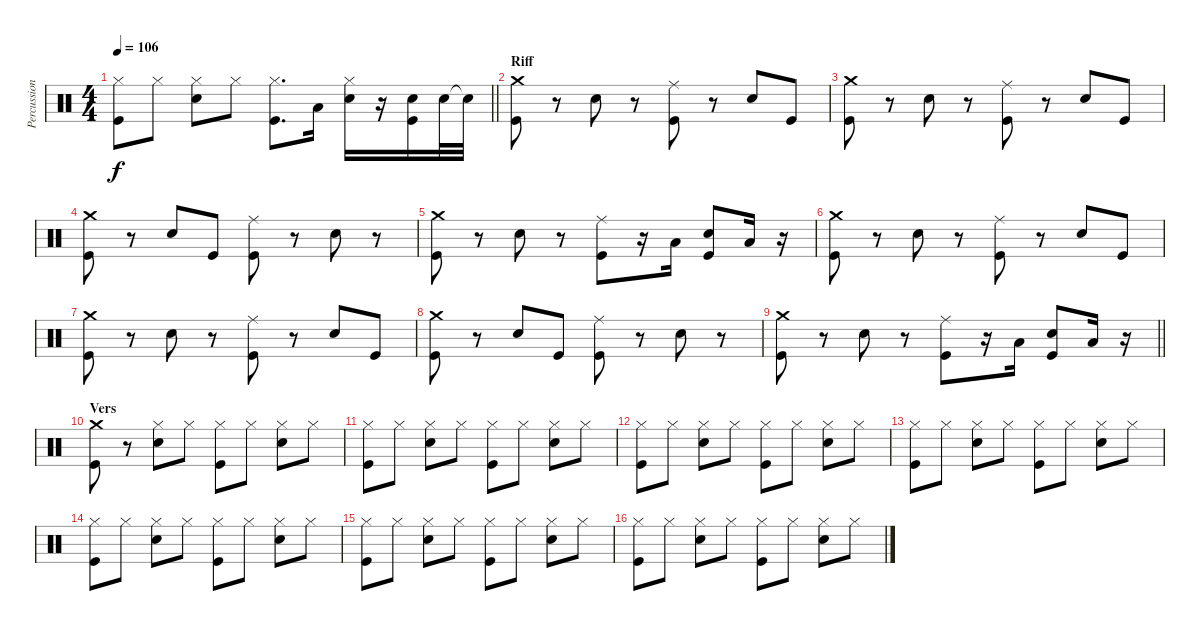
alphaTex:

\track ("Percussion" "Percussion") {instrument percussion}
\staff {score}
\articulation defaults
\ts (4 4)
\tempo 106
\clef neutral
\barLineRight lightlight
\ks c
("Kick (hit)" "Hi-Hat (closed)").8{dy f} "Hi-Hat (closed)".8 ("Electric Snare (hit)" "Hi-Hat (closed)").8 "Hi-Hat (closed)".8 ("Kick (hit)" "Hi-Hat (closed)").8{d} "Low Tom (hit)".16 ("Electric Snare (hit)" "Hi-Hat (closed)").16 r.16 ("Kick (hit)" "Electric Snare (hit)").16 "Electric Snare (hit)".32 "Snare (hit)"{t}.32 |
\section ("" "Riff")
("Kick (hit)" "Crash medium (hit)").8 r.8 "Electric Snare (hit)".8 r.8 ("Kick (hit)" "Ride (middle)").8 r.8 "Electric Snare (hit)".8 "Kick (hit)".8 |
("Kick (hit)" "Crash medium (hit)").8 r.8 "Electric Snare (hit)".8 r.8 ("Kick (hit)" "Ride (middle)").8 r.8 "Electric Snare (hit)".8 "Kick (hit)".8 |
("Kick (hit)" "Crash medium (hit)").8 r.8 "Electric Snare (hit)".8 "Kick (hit)".8 ("Kick (hit)" "Ride (middle)").8 r.8 "Electric Snare (hit)".8 r.8 |
("Kick (hit)" "Crash medium (hit)").8 r.8 "Electric Snare (hit)".8 r.8 ("Kick (hit)" "Ride (middle)").8 r.16 "Low Tom (hit)".16 ("Kick (hit)" "Electric Snare (hit)").8 "Low Tom (hit)".16 r.16 |
("Kick (hit)" "Crash medium (hit)").8 r.8 "Electric Snare (hit)".8 r.8 ("Kick (hit)" "Ride (middle)").8 r.8 "Electric Snare (hit)".8 "Kick (hit)".8 |
("Kick (hit)" "Crash medium (hit)").8 r.8 "Electric Snare (hit)".8 r.8 ("Kick (hit)" "Ride (middle)").8 r.8 "Electric Snare (hit)".8 "Kick (hit)".8 |
("Kick (hit)" "Crash medium (hit)").8 r.8 "Electric Snare (hit)".8 "Kick (hit)".8 ("Kick (hit)" "Ride (middle)").8 r.8 "Electric Snare (hit)".8 r.8 |
\barLineRight lightlight
("Kick (hit)" "Crash medium (hit)").8 r.8 "Electric Snare (hit)".8 r.8 ("Kick (hit)" "Ride (middle)").8 r.16 "Low Tom (hit)".16 ("Kick (hit)" "Electric Snare (hit)").8 "Low Tom (hit)".16 r.16 |
\section ("" "Vers")
("Kick (hit)" "Crash medium (hit)").8 r.8 ("Electric Snare (hit)" "Hi-Hat (closed)").8 "Hi-Hat (closed)".8 ("Kick (hit)" "Hi-Hat (closed)").8 "Hi-Hat (closed)".8 ("Electric Snare (hit)" "Hi-Hat (closed)").8 "Hi-Hat (closed)".8 |
("Kick (hit)" "Hi-Hat (closed)").8 "Hi-Hat (closed)".8 ("Electric Snare (hit)" "Hi-Hat (closed)").8 "Hi-Hat (closed)".8 ("Kick (hit)" "Hi-Hat (closed)").8 "Hi-Hat (closed)".8 ("Electric Snare (hit)" "Hi-Hat (closed)").8 "Hi-Hat (closed)".8 |
("Kick (hit)" "Hi-Hat (closed)").8 "Hi-Hat (closed)".8 ("Electric Snare (hit)" "Hi-Hat (closed)").8 "Hi-Hat (closed)".8 ("Kick (hit)" "Hi-Hat (closed)").8 "Hi-Hat (closed)".8 ("Electric Snare (hit)" "Hi-Hat (closed)").8 "Hi-Hat (closed)".8 |
("Kick (hit)" "Hi-Hat (closed)").8 "Hi-Hat (closed)".8 ("Electric Snare (hit)" "Hi-Hat (closed)").8 "Hi-Hat (closed)".8 ("Kick (hit)" "Hi-Hat (closed)").8 "Hi-Hat (closed)".8 ("Electric Snare (hit)" "Hi-Hat (closed)").8 "Hi-Hat (closed)".8 |
("Kick (hit)" "Hi-Hat (closed)").8 "Hi-Hat (closed)".8 ("Electric Snare (hit)" "Hi-Hat (closed)").8 "Hi-Hat (closed)".8 ("Kick (hit)" "Hi-Hat (closed)").8 "Hi-Hat (closed)".8 ("Electric Snare (hit)" "Hi-Hat (closed)").8 "Hi-Hat (closed)".8 |
("Kick (hit)" "Hi-Hat (closed)").8 "Hi-Hat (closed)".8 ("Electric Snare (hit)" "Hi-Hat (closed)").8 "Hi-Hat (closed)".8 ("Kick (hit)" "Hi-Hat (closed)").8 "Hi-Hat (closed)".8 ("Electric Snare (hit)" "Hi-Hat (closed)").8 "Hi-Hat (closed)".8 |
("Kick (hit)" "Hi-Hat (closed)").8 "Hi-Hat (closed)".8 ("Electric Snare (hit)" "Hi-Hat (closed)").8 "Hi-Hat (closed)".8 ("Kick (hit)" "Hi-Hat (closed)").8 "Hi-Hat (closed)".8 ("Electric Snare (hit)" "Hi-Hat (closed)").8 "Hi-Hat (closed)".8
